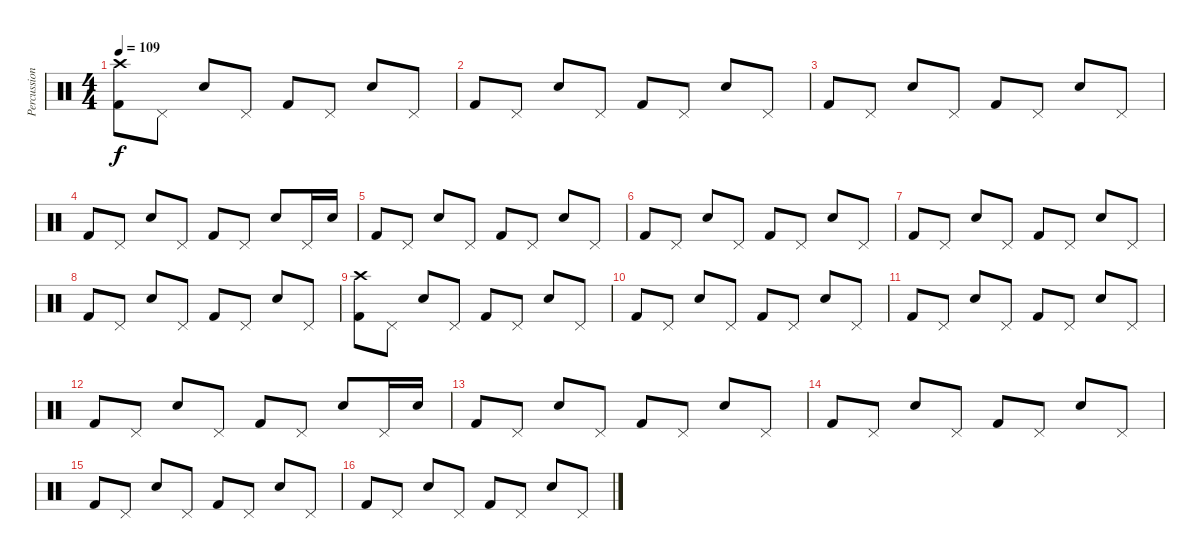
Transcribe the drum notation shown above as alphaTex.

\track ("Percussions" "Percussion") {instrument percussion}
\staff {score}
\articulation defaults
\ts (4 4)
\tempo 109
\clef neutral
\ks c
("Crash high (hit)" "Kick (hit) 2").8{dy f} "Pedal Hi-Hat (hit)".8 "Snare (hit) 2".8 "Pedal Hi-Hat (hit)".8 "Kick (hit) 2".8 "Pedal Hi-Hat (hit)".8 "Snare (hit) 2".8 "Pedal Hi-Hat (hit)".8 |
"Kick (hit) 2".8 "Pedal Hi-Hat (hit)".8 "Snare (hit) 2".8 "Pedal Hi-Hat (hit)".8 "Kick (hit) 2".8 "Pedal Hi-Hat (hit)".8 "Snare (hit) 2".8 "Pedal Hi-Hat (hit)".8 |
"Kick (hit) 2".8 "Pedal Hi-Hat (hit)".8 "Snare (hit) 2".8 "Pedal Hi-Hat (hit)".8 "Kick (hit) 2".8 "Pedal Hi-Hat (hit)".8 "Snare (hit) 2".8 "Pedal Hi-Hat (hit)".8 |
"Kick (hit) 2".8 "Pedal Hi-Hat (hit)".8 "Snare (hit) 2".8 "Pedal Hi-Hat (hit)".8 "Kick (hit) 2".8 "Pedal Hi-Hat (hit)".8 "Snare (hit) 2".8 "Pedal Hi-Hat (hit)".16 "Snare (hit) 2".16 |
"Kick (hit) 2".8 "Pedal Hi-Hat (hit)".8 "Snare (hit) 2".8 "Pedal Hi-Hat (hit)".8 "Kick (hit) 2".8 "Pedal Hi-Hat (hit)".8 "Snare (hit) 2".8 "Pedal Hi-Hat (hit)".8 |
"Kick (hit) 2".8 "Pedal Hi-Hat (hit)".8 "Snare (hit) 2".8 "Pedal Hi-Hat (hit)".8 "Kick (hit) 2".8 "Pedal Hi-Hat (hit)".8 "Snare (hit) 2".8 "Pedal Hi-Hat (hit)".8 |
"Kick (hit) 2".8 "Pedal Hi-Hat (hit)".8 "Snare (hit) 2".8 "Pedal Hi-Hat (hit)".8 "Kick (hit) 2".8 "Pedal Hi-Hat (hit)".8 "Snare (hit) 2".8 "Pedal Hi-Hat (hit)".8 |
"Kick (hit) 2".8 "Pedal Hi-Hat (hit)".8 "Snare (hit) 2".8 "Pedal Hi-Hat (hit)".8 "Kick (hit) 2".8 "Pedal Hi-Hat (hit)".8 "Snare (hit) 2".8 "Pedal Hi-Hat (hit)".8 |
("Crash high (hit)" "Kick (hit) 2").8 "Pedal Hi-Hat (hit)".8 "Snare (hit) 2".8 "Pedal Hi-Hat (hit)".8 "Kick (hit) 2".8 "Pedal Hi-Hat (hit)".8 "Snare (hit) 2".8 "Pedal Hi-Hat (hit)".8 |
"Kick (hit) 2".8 "Pedal Hi-Hat (hit)".8 "Snare (hit) 2".8 "Pedal Hi-Hat (hit)".8 "Kick (hit) 2".8 "Pedal Hi-Hat (hit)".8 "Snare (hit) 2".8 "Pedal Hi-Hat (hit)".8 |
"Kick (hit) 2".8 "Pedal Hi-Hat (hit)".8 "Snare (hit) 2".8 "Pedal Hi-Hat (hit)".8 "Kick (hit) 2".8 "Pedal Hi-Hat (hit)".8 "Snare (hit) 2".8 "Pedal Hi-Hat (hit)".8 |
"Kick (hit) 2".8 "Pedal Hi-Hat (hit)".8 "Snare (hit) 2".8 "Pedal Hi-Hat (hit)".8 "Kick (hit) 2".8 "Pedal Hi-Hat (hit)".8 "Snare (hit) 2".8 "Pedal Hi-Hat (hit)".16 "Snare (hit) 2".16 |
"Kick (hit) 2".8 "Pedal Hi-Hat (hit)".8 "Snare (hit) 2".8 "Pedal Hi-Hat (hit)".8 "Kick (hit) 2".8 "Pedal Hi-Hat (hit)".8 "Snare (hit) 2".8 "Pedal Hi-Hat (hit)".8 |
"Kick (hit) 2".8 "Pedal Hi-Hat (hit)".8 "Snare (hit) 2".8 "Pedal Hi-Hat (hit)".8 "Kick (hit) 2".8 "Pedal Hi-Hat (hit)".8 "Snare (hit) 2".8 "Pedal Hi-Hat (hit)".8 |
"Kick (hit) 2".8 "Pedal Hi-Hat (hit)".8 "Snare (hit) 2".8 "Pedal Hi-Hat (hit)".8 "Kick (hit) 2".8 "Pedal Hi-Hat (hit)".8 "Snare (hit) 2".8 "Pedal Hi-Hat (hit)".8 |
"Kick (hit) 2".8 "Pedal Hi-Hat (hit)".8 "Snare (hit) 2".8 "Pedal Hi-Hat (hit)".8 "Kick (hit) 2".8 "Pedal Hi-Hat (hit)".8 "Snare (hit) 2".8 "Pedal Hi-Hat (hit)".8
